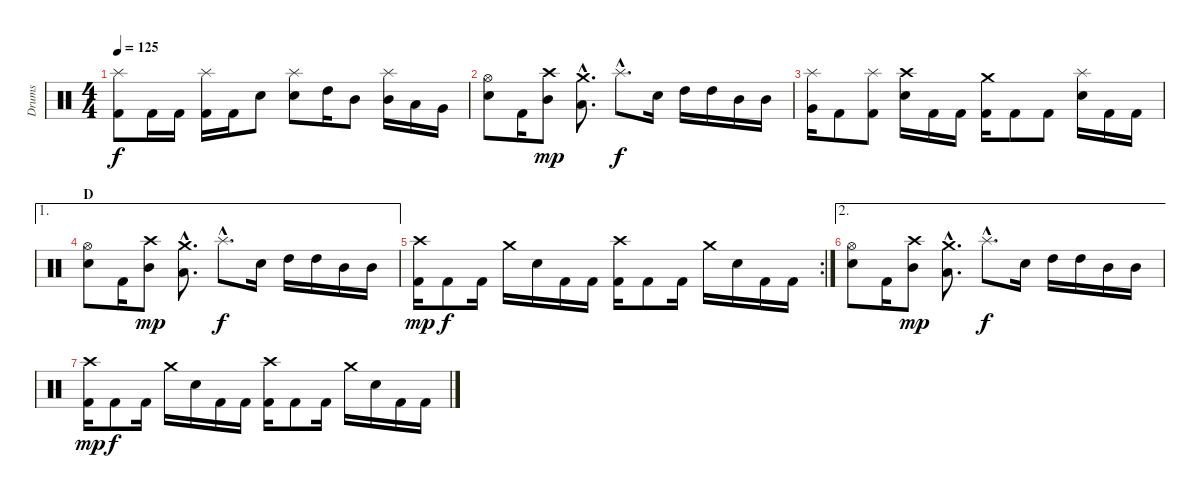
\track ("Drums" "Drums") {instrument percussion}
\staff {score}
\articulation defaults
\ts (4 4)
\tempo 125
\clef neutral
\ks c
("Splash (hit)" "Kick (hit) 2").8{dy f} "Kick (hit) 2".16 "Kick (hit) 2".16 ("Splash (hit)" "Kick (hit) 2").16 "Kick (hit) 2".16 "Snare (hit) 2".8 ("Splash (hit)" "Snare (hit) 2").8 "High Tom (hit)".16 "Mid Tom (hit)".8 ("Splash (hit)" "Mid Tom (hit)").16 "Low Tom (hit)".16 "Very Low Tom (hit)".16 |
("Hi-Hat (open)" "Snare (hit) 2").8 "Kick (hit) 2".16 ("Crash high (hit)" "Mid Tom (hit)").8{dy mp} ("Crash medium (hit)"{hac} "Low Tom (hit)"{hac}).8{d} "Splash (hit)"{hac}.8{d dy f} "Snare (hit) 2".16 "High Tom (hit)".16 "High Tom (hit)".16 "Mid Tom (hit)".16 "Mid Tom (hit)".16 |
("Splash (hit)" "Very Low Tom (hit)").16 "Kick (hit) 2".8 ("Splash (hit)" "Kick (hit) 2").8 ("Crash high (hit)" "Snare (hit) 2").16 "Kick (hit) 2".16 "Kick (hit) 2".16 ("Crash medium (hit)" "Kick (hit) 2").16 "Kick (hit) 2".8 "Kick (hit) 2".8 ("Splash (hit)" "Snare (hit) 2").16 "Kick (hit) 2".16 "Kick (hit) 2".16 |
\ae 1
\section ("" "D")
("Hi-Hat (open)" "Snare (hit) 2").8 "Kick (hit) 2".16 ("Crash high (hit)" "Mid Tom (hit)").8{dy mp} ("Crash medium (hit)"{hac} "Low Tom (hit)"{hac}).8{d} "Splash (hit)"{hac}.8{d dy f} "Snare (hit) 2".16 "High Tom (hit)".16 "High Tom (hit)".16 "Mid Tom (hit)".16 "Mid Tom (hit)".16 |
\rc 2
("Crash high (hit)" "Kick (hit) 2").16{dy mp} "Kick (hit) 2".8{dy f} "Kick (hit) 2".16 "Crash medium (hit)".16 "Snare (hit) 2".16 "Kick (hit) 2".16 "Kick (hit) 2".16 ("Crash high (hit)" "Kick (hit) 2").16 "Kick (hit) 2".8 "Kick (hit) 2".16 "Crash medium (hit)".16 "Snare (hit) 2".16 "Kick (hit) 2".16 "Kick (hit) 2".16 |
\ae 2
("Hi-Hat (open)" "Snare (hit) 2").8 "Kick (hit) 2".16 ("Crash high (hit)" "Mid Tom (hit)").8{dy mp} ("Crash medium (hit)"{hac} "Low Tom (hit)"{hac}).8{d} "Splash (hit)"{hac}.8{d dy f} "Snare (hit) 2".16 "High Tom (hit)".16 "High Tom (hit)".16 "Mid Tom (hit)".16 "Mid Tom (hit)".16 |
("Crash high (hit)" "Kick (hit) 2").16{dy mp} "Kick (hit) 2".8{dy f} "Kick (hit) 2".16 "Crash medium (hit)".16 "Snare (hit) 2".16 "Kick (hit) 2".16 "Kick (hit) 2".16 ("Crash high (hit)" "Kick (hit) 2").16 "Kick (hit) 2".8 "Kick (hit) 2".16 "Crash medium (hit)".16 "Snare (hit) 2".16 "Kick (hit) 2".16 "Kick (hit) 2".16
